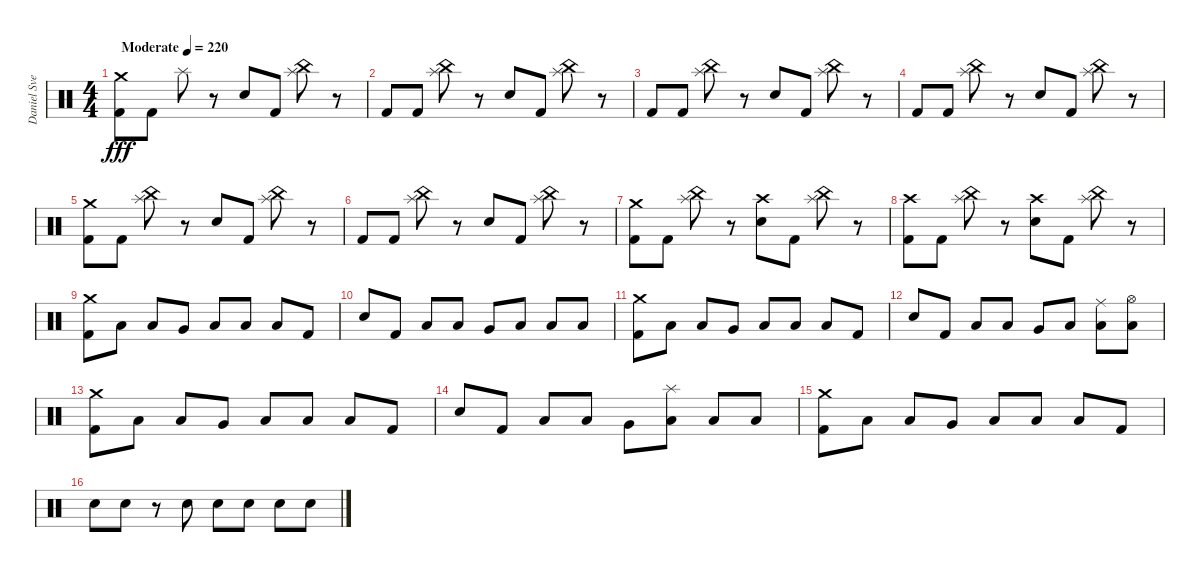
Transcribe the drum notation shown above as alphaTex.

\track ("Daniel Svensson" "Daniel Sve") {instrument percussion}
\staff {score}
\articulation defaults
\ts (4 4)
\tempo (220 "Moderate")
\clef neutral
\ks c
("Crash medium (hit)" "Kick (hit) 2").8{dy fff} "Kick (hit) 2".8 "Splash (hit)".8 r.8 "Electric Snare (hit)".8 "Kick (hit) 2".8 ("China (hit)" "Splash (hit)").8 r.8 |
"Kick (hit) 2".8 "Kick (hit) 2".8 ("China (hit)" "Splash (hit)").8 r.8 "Electric Snare (hit)".8 "Kick (hit) 2".8 ("China (hit)" "Splash (hit)").8 r.8 |
"Kick (hit) 2".8 "Kick (hit) 2".8 ("China (hit)" "Splash (hit)").8 r.8 "Electric Snare (hit)".8 "Kick (hit) 2".8 ("China (hit)" "Splash (hit)").8 r.8 |
"Kick (hit) 2".8 "Kick (hit) 2".8 ("China (hit)" "Splash (hit)").8 r.8 "Electric Snare (hit)".8 "Kick (hit) 2".8 ("China (hit)" "Splash (hit)").8 r.8 |
("Crash medium (hit)" "Kick (hit) 2").8 "Kick (hit) 2".8 ("China (hit)" "Splash (hit)").8 r.8 "Electric Snare (hit)".8 "Kick (hit) 2".8 ("China (hit)" "Splash (hit)").8 r.8 |
"Kick (hit) 2".8 "Kick (hit) 2".8 ("China (hit)" "Splash (hit)").8 r.8 "Electric Snare (hit)".8 "Kick (hit) 2".8 ("China (hit)" "Splash (hit)").8 r.8 |
("Crash medium (hit)" "Kick (hit) 2").8 "Kick (hit) 2".8 ("China (hit)" "Splash (hit)").8 r.8 ("Crash high (hit)" "Electric Snare (hit)").8 "Kick (hit) 2".8 ("China (hit)" "Splash (hit)").8 r.8 |
("Crash high (hit)" "Kick (hit) 2").8 "Kick (hit) 2".8 ("China (hit)" "Splash (hit)").8 r.8 ("Crash high (hit)" "Electric Snare (hit)").8 "Kick (hit) 2".8 ("China (hit)" "Splash (hit)").8 r.8 |
("Crash medium (hit)" "Kick (hit) 2").8 "Low Tom (hit)".8 "Low Floor Tom (hit)".8 "Very Low Tom (hit)".8 "Low Tom (hit)".8 "Low Floor Tom (hit)".8 "Low Floor Tom (hit)".8 "Kick (hit) 2".8 |
"Electric Snare (hit)".8 "Kick (hit) 2".8 "Low Floor Tom (hit)".8 "Low Tom (hit)".8 "Very Low Tom (hit)".8 "Low Floor Tom (hit)".8 "Low Tom (hit)".8 "Low Floor Tom (hit)".8 |
("Crash medium (hit)" "Kick (hit) 2").8 "Low Tom (hit)".8 "Low Floor Tom (hit)".8 "Very Low Tom (hit)".8 "Low Tom (hit)".8 "Low Floor Tom (hit)".8 "Low Floor Tom (hit)".8 "Kick (hit) 2".8 |
"Electric Snare (hit)".8 "Kick (hit) 2".8 "Low Floor Tom (hit)".8 "Low Tom (hit)".8 "Very Low Tom (hit)".8 "Low Floor Tom (hit)".8 ("Ride (middle)" "Low Tom (hit)").8 ("Hi-Hat (open)" "Low Floor Tom (hit)").8 |
("Crash medium (hit)" "Kick (hit) 2").8 "Low Tom (hit)".8 "Low Floor Tom (hit)".8 "Very Low Tom (hit)".8 "Low Tom (hit)".8 "Low Floor Tom (hit)".8 "Low Floor Tom (hit)".8 "Kick (hit) 2".8 |
"Electric Snare (hit)".8 "Kick (hit) 2".8 "Low Floor Tom (hit)".8 "Low Tom (hit)".8 "Very Low Tom (hit)".8 ("Splash (hit)" "Low Floor Tom (hit)").8 "Low Tom (hit)".8 "Low Floor Tom (hit)".8 |
("Crash medium (hit)" "Kick (hit) 2").8 "Low Tom (hit)".8 "Low Floor Tom (hit)".8 "Very Low Tom (hit)".8 "Low Tom (hit)".8 "Low Floor Tom (hit)".8 "Low Floor Tom (hit)".8 "Kick (hit) 2".8 |
"Electric Snare (hit)".8 "Electric Snare (hit)".8 r.8 "Electric Snare (hit)".8 "Electric Snare (hit)".8 "Electric Snare (hit)".8 "Electric Snare (hit)".8 "Electric Snare (hit)".8
